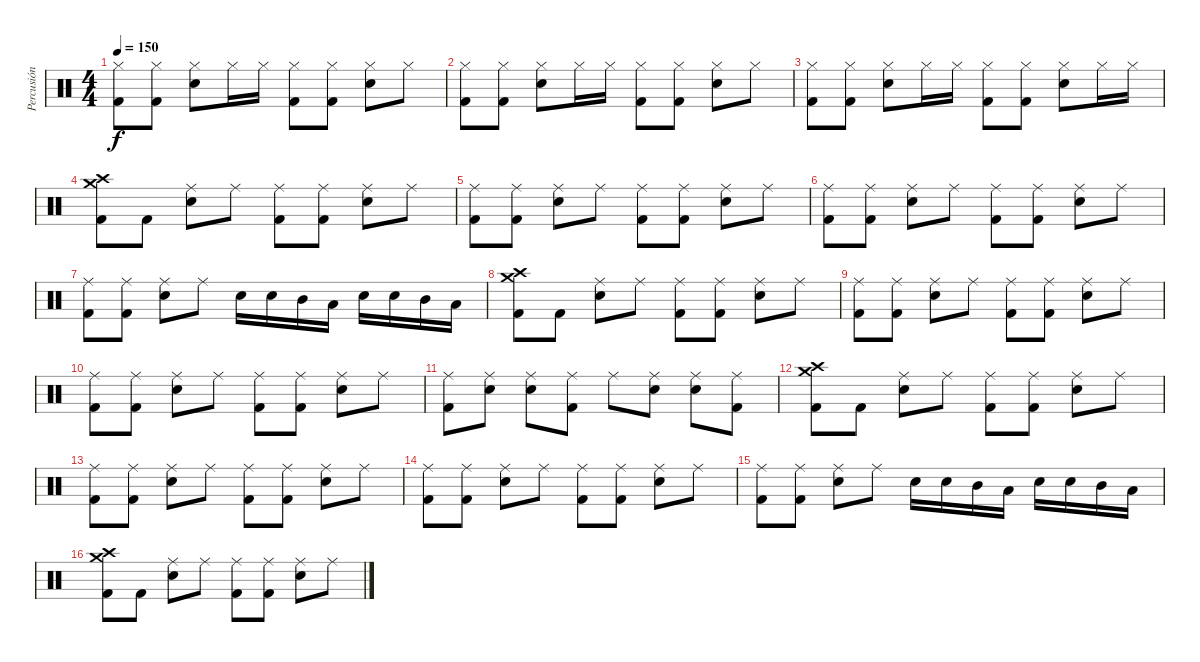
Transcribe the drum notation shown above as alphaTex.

\track ("Percusión" "Percusión") {instrument percussion}
\staff {score}
\articulation defaults
\ts (4 4)
\tempo 150
\clef neutral
\ks c
("Hi-Hat (closed)" "Kick (hit) 2").8{dy f} ("Hi-Hat (closed)" "Kick (hit) 2").8 ("Hi-Hat (closed)" "Electric Snare (hit)").8 "Hi-Hat (closed)".16 "Hi-Hat (closed)".16 ("Hi-Hat (closed)" "Kick (hit) 2").8 ("Hi-Hat (closed)" "Kick (hit) 2").8 ("Hi-Hat (closed)" "Electric Snare (hit)").8 "Hi-Hat (closed)".8 |
("Hi-Hat (closed)" "Kick (hit) 2").8 ("Hi-Hat (closed)" "Kick (hit) 2").8 ("Hi-Hat (closed)" "Electric Snare (hit)").8 "Hi-Hat (closed)".16 "Hi-Hat (closed)".16 ("Hi-Hat (closed)" "Kick (hit) 2").8 ("Hi-Hat (closed)" "Kick (hit) 2").8 ("Hi-Hat (closed)" "Electric Snare (hit)").8 "Hi-Hat (closed)".8 |
("Hi-Hat (closed)" "Kick (hit) 2").8 ("Hi-Hat (closed)" "Kick (hit) 2").8 ("Hi-Hat (closed)" "Electric Snare (hit)").8 "Hi-Hat (closed)".16 "Hi-Hat (closed)".16 ("Hi-Hat (closed)" "Kick (hit) 2").8 ("Hi-Hat (closed)" "Kick (hit) 2").8 ("Hi-Hat (closed)" "Electric Snare (hit)").8 "Hi-Hat (closed)".16 "Hi-Hat (closed)".16 |
("Crash high (hit)" "Crash medium (hit)" "Kick (hit) 2").8 "Kick (hit) 2".8 ("Ride (middle)" "Electric Snare (hit)").8 "Ride (middle)".8 ("Ride (middle)" "Kick (hit) 2").8 ("Ride (middle)" "Kick (hit) 2").8 ("Ride (middle)" "Electric Snare (hit)").8 "Ride (middle)".8 |
("Ride (middle)" "Kick (hit) 2").8 ("Ride (middle)" "Kick (hit) 2").8 ("Ride (middle)" "Electric Snare (hit)").8 "Ride (middle)".8 ("Ride (middle)" "Kick (hit) 2").8 ("Ride (middle)" "Kick (hit) 2").8 ("Ride (middle)" "Electric Snare (hit)").8 "Ride (middle)".8 |
("Ride (middle)" "Kick (hit) 2").8 ("Ride (middle)" "Kick (hit) 2").8 ("Ride (middle)" "Electric Snare (hit)").8 "Ride (middle)".8 ("Ride (middle)" "Kick (hit) 2").8 ("Ride (middle)" "Kick (hit) 2").8 ("Ride (middle)" "Electric Snare (hit)").8 "Ride (middle)".8 |
("Ride (middle)" "Kick (hit) 2").8 ("Ride (middle)" "Kick (hit) 2").8 ("Ride (middle)" "Electric Snare (hit)").8 "Ride (middle)".8 "Electric Snare (hit)".16 "Electric Snare (hit)".16 "Mid Tom (hit)".16 "Low Tom (hit)".16 "Electric Snare (hit)".16 "Electric Snare (hit)".16 "Mid Tom (hit)".16 "Low Tom (hit)".16 |
("Crash high (hit)" "Crash medium (hit)" "Kick (hit) 2").8 "Kick (hit) 2".8 ("Ride (middle)" "Electric Snare (hit)").8 "Ride (middle)".8 ("Ride (middle)" "Kick (hit) 2").8 ("Ride (middle)" "Kick (hit) 2").8 ("Ride (middle)" "Electric Snare (hit)").8 "Ride (middle)".8 |
("Ride (middle)" "Kick (hit) 2").8 ("Ride (middle)" "Kick (hit) 2").8 ("Ride (middle)" "Electric Snare (hit)").8 "Ride (middle)".8 ("Ride (middle)" "Kick (hit) 2").8 ("Ride (middle)" "Kick (hit) 2").8 ("Ride (middle)" "Electric Snare (hit)").8 "Ride (middle)".8 |
("Ride (middle)" "Kick (hit) 2").8 ("Ride (middle)" "Kick (hit) 2").8 ("Ride (middle)" "Electric Snare (hit)").8 "Ride (middle)".8 ("Ride (middle)" "Kick (hit) 2").8 ("Ride (middle)" "Kick (hit) 2").8 ("Ride (middle)" "Electric Snare (hit)").8 "Ride (middle)".8 |
("Ride (middle)" "Kick (hit) 2").8 ("Ride (middle)" "Electric Snare (hit)").8 ("Ride (middle)" "Electric Snare (hit)").8 ("Ride (middle)" "Kick (hit) 2").8 "Ride (middle)".8 ("Ride (middle)" "Electric Snare (hit)").8 ("Ride (middle)" "Electric Snare (hit)").8 ("Ride (middle)" "Kick (hit) 2").8 |
("Crash high (hit)" "Crash medium (hit)" "Kick (hit) 2").8 "Kick (hit) 2".8 ("Ride (middle)" "Electric Snare (hit)").8 "Ride (middle)".8 ("Ride (middle)" "Kick (hit) 2").8 ("Ride (middle)" "Kick (hit) 2").8 ("Ride (middle)" "Electric Snare (hit)").8 "Ride (middle)".8 |
("Ride (middle)" "Kick (hit) 2").8 ("Ride (middle)" "Kick (hit) 2").8 ("Ride (middle)" "Electric Snare (hit)").8 "Ride (middle)".8 ("Ride (middle)" "Kick (hit) 2").8 ("Ride (middle)" "Kick (hit) 2").8 ("Ride (middle)" "Electric Snare (hit)").8 "Ride (middle)".8 |
("Ride (middle)" "Kick (hit) 2").8 ("Ride (middle)" "Kick (hit) 2").8 ("Ride (middle)" "Electric Snare (hit)").8 "Ride (middle)".8 ("Ride (middle)" "Kick (hit) 2").8 ("Ride (middle)" "Kick (hit) 2").8 ("Ride (middle)" "Electric Snare (hit)").8 "Ride (middle)".8 |
("Ride (middle)" "Kick (hit) 2").8 ("Ride (middle)" "Kick (hit) 2").8 ("Ride (middle)" "Electric Snare (hit)").8 "Ride (middle)".8 "Electric Snare (hit)".16 "Electric Snare (hit)".16 "Mid Tom (hit)".16 "Low Tom (hit)".16 "Electric Snare (hit)".16 "Electric Snare (hit)".16 "Mid Tom (hit)".16 "Low Tom (hit)".16 |
("Crash high (hit)" "Crash medium (hit)" "Kick (hit) 2").8 "Kick (hit) 2".8 ("Ride (middle)" "Electric Snare (hit)").8 "Ride (middle)".8 ("Ride (middle)" "Kick (hit) 2").8 ("Ride (middle)" "Kick (hit) 2").8 ("Ride (middle)" "Electric Snare (hit)").8 "Ride (middle)".8
